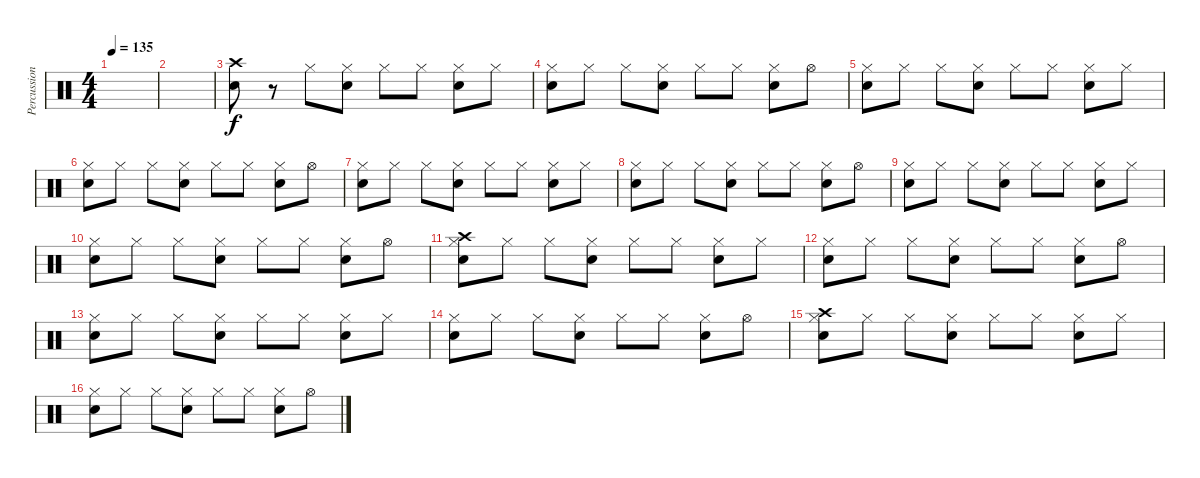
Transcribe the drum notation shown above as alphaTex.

\track ("Percussions" "Percussion") {instrument percussion}
\staff {score}
\articulation defaults
\ts (4 4)
\tempo 135
\clef neutral
\ks c
|
|
("Crash high (hit)" "Electric Snare (hit)").8 r.8 "Hi-Hat (closed)".8 ("Hi-Hat (closed)" "Electric Snare (hit)").8 "Hi-Hat (closed)".8 "Hi-Hat (closed)".8 ("Hi-Hat (closed)" "Electric Snare (hit)").8 "Hi-Hat (closed)".8 |
("Hi-Hat (closed)" "Electric Snare (hit)").8 "Hi-Hat (closed)".8 "Hi-Hat (closed)".8 ("Hi-Hat (closed)" "Electric Snare (hit)").8 "Hi-Hat (closed)".8 "Hi-Hat (closed)".8 ("Hi-Hat (closed)" "Electric Snare (hit)").8 "Hi-Hat (open)".8 |
("Hi-Hat (closed)" "Electric Snare (hit)").8 "Hi-Hat (closed)".8 "Hi-Hat (closed)".8 ("Hi-Hat (closed)" "Electric Snare (hit)").8 "Hi-Hat (closed)".8 "Hi-Hat (closed)".8 ("Hi-Hat (closed)" "Electric Snare (hit)").8 "Hi-Hat (closed)".8 |
("Hi-Hat (closed)" "Electric Snare (hit)").8 "Hi-Hat (closed)".8 "Hi-Hat (closed)".8 ("Hi-Hat (closed)" "Electric Snare (hit)").8 "Hi-Hat (closed)".8 "Hi-Hat (closed)".8 ("Hi-Hat (closed)" "Electric Snare (hit)").8 "Hi-Hat (open)".8 |
("Hi-Hat (closed)" "Electric Snare (hit)").8 "Hi-Hat (closed)".8 "Hi-Hat (closed)".8 ("Hi-Hat (closed)" "Electric Snare (hit)").8 "Hi-Hat (closed)".8 "Hi-Hat (closed)".8 ("Hi-Hat (closed)" "Electric Snare (hit)").8 "Hi-Hat (closed)".8 |
("Hi-Hat (closed)" "Electric Snare (hit)").8 "Hi-Hat (closed)".8 "Hi-Hat (closed)".8 ("Hi-Hat (closed)" "Electric Snare (hit)").8 "Hi-Hat (closed)".8 "Hi-Hat (closed)".8 ("Hi-Hat (closed)" "Electric Snare (hit)").8 "Hi-Hat (open)".8 |
("Hi-Hat (closed)" "Electric Snare (hit)").8 "Hi-Hat (closed)".8 "Hi-Hat (closed)".8 ("Hi-Hat (closed)" "Electric Snare (hit)").8 "Hi-Hat (closed)".8 "Hi-Hat (closed)".8 ("Hi-Hat (closed)" "Electric Snare (hit)").8 "Hi-Hat (closed)".8 |
("Hi-Hat (closed)" "Electric Snare (hit)").8 "Hi-Hat (closed)".8 "Hi-Hat (closed)".8 ("Hi-Hat (closed)" "Electric Snare (hit)").8 "Hi-Hat (closed)".8 "Hi-Hat (closed)".8 ("Hi-Hat (closed)" "Electric Snare (hit)").8 "Hi-Hat (open)".8 |
("Crash high (hit)" "Hi-Hat (closed)" "Electric Snare (hit)").8 "Hi-Hat (closed)".8 "Hi-Hat (closed)".8 ("Hi-Hat (closed)" "Electric Snare (hit)").8 "Hi-Hat (closed)".8 "Hi-Hat (closed)".8 ("Hi-Hat (closed)" "Electric Snare (hit)").8 "Hi-Hat (closed)".8 |
("Hi-Hat (closed)" "Electric Snare (hit)").8 "Hi-Hat (closed)".8 "Hi-Hat (closed)".8 ("Hi-Hat (closed)" "Electric Snare (hit)").8 "Hi-Hat (closed)".8 "Hi-Hat (closed)".8 ("Hi-Hat (closed)" "Electric Snare (hit)").8 "Hi-Hat (open)".8 |
("Hi-Hat (closed)" "Electric Snare (hit)").8 "Hi-Hat (closed)".8 "Hi-Hat (closed)".8 ("Hi-Hat (closed)" "Electric Snare (hit)").8 "Hi-Hat (closed)".8 "Hi-Hat (closed)".8 ("Hi-Hat (closed)" "Electric Snare (hit)").8 "Hi-Hat (closed)".8 |
("Hi-Hat (closed)" "Electric Snare (hit)").8 "Hi-Hat (closed)".8 "Hi-Hat (closed)".8 ("Hi-Hat (closed)" "Electric Snare (hit)").8 "Hi-Hat (closed)".8 "Hi-Hat (closed)".8 ("Hi-Hat (closed)" "Electric Snare (hit)").8 "Hi-Hat (open)".8 |
("Crash high (hit)" "Hi-Hat (closed)" "Electric Snare (hit)").8 "Hi-Hat (closed)".8 "Hi-Hat (closed)".8 ("Hi-Hat (closed)" "Electric Snare (hit)").8 "Hi-Hat (closed)".8 "Hi-Hat (closed)".8 ("Hi-Hat (closed)" "Electric Snare (hit)").8 "Hi-Hat (closed)".8 |
("Hi-Hat (closed)" "Electric Snare (hit)").8 "Hi-Hat (closed)".8 "Hi-Hat (closed)".8 ("Hi-Hat (closed)" "Electric Snare (hit)").8 "Hi-Hat (closed)".8 "Hi-Hat (closed)".8 ("Hi-Hat (closed)" "Electric Snare (hit)").8 "Hi-Hat (open)".8
